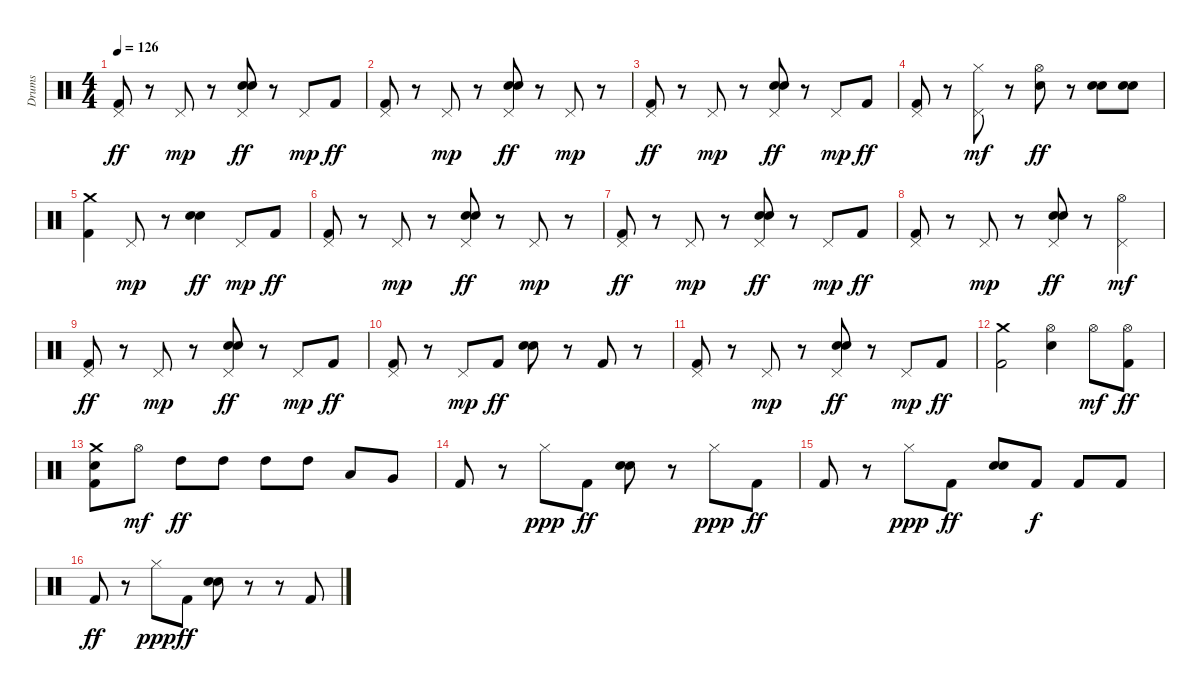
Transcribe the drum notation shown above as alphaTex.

\track ("Drums" "Drums") {instrument percussion}
\staff {score}
\articulation defaults
\ts (4 4)
\tempo 126
\clef neutral
\ks c
("Pedal Hi-Hat (hit)" "Kick (hit) 2").8{dy ff} r.8 "Pedal Hi-Hat (hit)".8{dy mp} r.8 ("Pedal Hi-Hat (hit)" "Electric Snare (hit)" "Electric Snare (hit)").8{dy ff} r.8 "Pedal Hi-Hat (hit)".8{dy mp} "Kick (hit) 2".8{dy ff} |
("Pedal Hi-Hat (hit)" "Kick (hit) 2").8 r.8 "Pedal Hi-Hat (hit)".8{dy mp} r.8 ("Pedal Hi-Hat (hit)" "Electric Snare (hit)" "Electric Snare (hit)").8{dy ff} r.8 "Pedal Hi-Hat (hit)".8{dy mp} r.8 |
("Pedal Hi-Hat (hit)" "Kick (hit) 2").8{dy ff} r.8 "Pedal Hi-Hat (hit)".8{dy mp} r.8 ("Pedal Hi-Hat (hit)" "Electric Snare (hit)" "Electric Snare (hit)").8{dy ff} r.8 "Pedal Hi-Hat (hit)".8{dy mp} "Kick (hit) 2".8{dy ff} |
("Pedal Hi-Hat (hit)" "Kick (hit) 2").8 r.8 ("Pedal Hi-Hat (hit)" "Hi-Hat (closed)").8{dy mf} r.8 ("Hi-Hat (open)" "Electric Snare (hit)").8{dy ff} r.8 ("Electric Snare (hit)" "Electric Snare (hit)").8 ("Electric Snare (hit)" "Electric Snare (hit)").8 |
("Crash medium (hit)" "Kick (hit) 2").4 "Pedal Hi-Hat (hit)".8{dy mp} r.8 ("Electric Snare (hit)" "Electric Snare (hit)").4{dy ff} "Pedal Hi-Hat (hit)".8{dy mp} "Kick (hit) 2".8{dy ff} |
("Pedal Hi-Hat (hit)" "Kick (hit) 2").8 r.8 "Pedal Hi-Hat (hit)".8{dy mp} r.8 ("Pedal Hi-Hat (hit)" "Electric Snare (hit)" "Electric Snare (hit)").8{dy ff} r.8 "Pedal Hi-Hat (hit)".8{dy mp} r.8 |
("Pedal Hi-Hat (hit)" "Kick (hit) 2").8{dy ff} r.8 "Pedal Hi-Hat (hit)".8{dy mp} r.8 ("Pedal Hi-Hat (hit)" "Electric Snare (hit)" "Electric Snare (hit)").8{dy ff} r.8 "Pedal Hi-Hat (hit)".8{dy mp} "Kick (hit) 2".8{dy ff} |
("Pedal Hi-Hat (hit)" "Kick (hit) 2").8 r.8 "Pedal Hi-Hat (hit)".8{dy mp} r.8 ("Pedal Hi-Hat (hit)" "Electric Snare (hit)" "Electric Snare (hit)").8{dy ff} r.8 ("Pedal Hi-Hat (hit)" "Hi-Hat (open)").4{dy mf} |
("Pedal Hi-Hat (hit)" "Kick (hit) 2").8{dy ff} r.8 "Pedal Hi-Hat (hit)".8{dy mp} r.8 ("Pedal Hi-Hat (hit)" "Electric Snare (hit)" "Electric Snare (hit)").8{dy ff} r.8 "Pedal Hi-Hat (hit)".8{dy mp} "Kick (hit) 2".8{dy ff} |
("Pedal Hi-Hat (hit)" "Kick (hit) 2").8 r.8 "Pedal Hi-Hat (hit)".8{dy mp} "Kick (hit) 2".8{dy ff} ("Electric Snare (hit)" "Electric Snare (hit)").8 r.8 "Kick (hit) 2".8 r.8 |
("Pedal Hi-Hat (hit)" "Kick (hit) 2").8 r.8 "Pedal Hi-Hat (hit)".8{dy mp} r.8 ("Pedal Hi-Hat (hit)" "Electric Snare (hit)" "Electric Snare (hit)").8{dy ff} r.8 "Pedal Hi-Hat (hit)".8{dy mp} "Kick (hit) 2".8{dy ff} |
("Crash medium (hit)" "Kick (hit) 2").2 ("Hi-Hat (open)" "Electric Snare (hit)").4 "Hi-Hat (open)".8{dy mf} ("Hi-Hat (open)" "Kick (hit) 2").8{dy ff} |
("Crash medium (hit)" "Electric Snare (hit)" "Kick (hit) 2").8 "Hi-Hat (open)".8{dy mf} "High Tom (hit)".8{dy ff} "High Tom (hit)".8 "High Tom (hit)".8 "High Tom (hit)".8 "Low Tom (hit)".8 "Very Low Tom (hit)".8 |
"Kick (hit) 2".8 r.8 "Hi-Hat (closed)".8{dy ppp} "Kick (hit) 2".8{dy ff} ("Electric Snare (hit)" "Electric Snare (hit)").8 r.8 "Hi-Hat (closed)".8{dy ppp} "Kick (hit) 2".8{dy ff} |
"Kick (hit) 2".8 r.8 "Hi-Hat (closed)".8{dy ppp} "Kick (hit) 2".8{dy ff} ("Electric Snare (hit)" "Electric Snare (hit)").8 "Kick (hit) 2".8{dy f} "Kick (hit) 2".8 "Kick (hit) 2".8 |
"Kick (hit) 2".8{dy ff} r.8 "Hi-Hat (closed)".8{dy ppp} "Kick (hit) 2".8{dy ff} ("Electric Snare (hit)" "Electric Snare (hit)").8 r.8 r.8 "Kick (hit) 2".8
